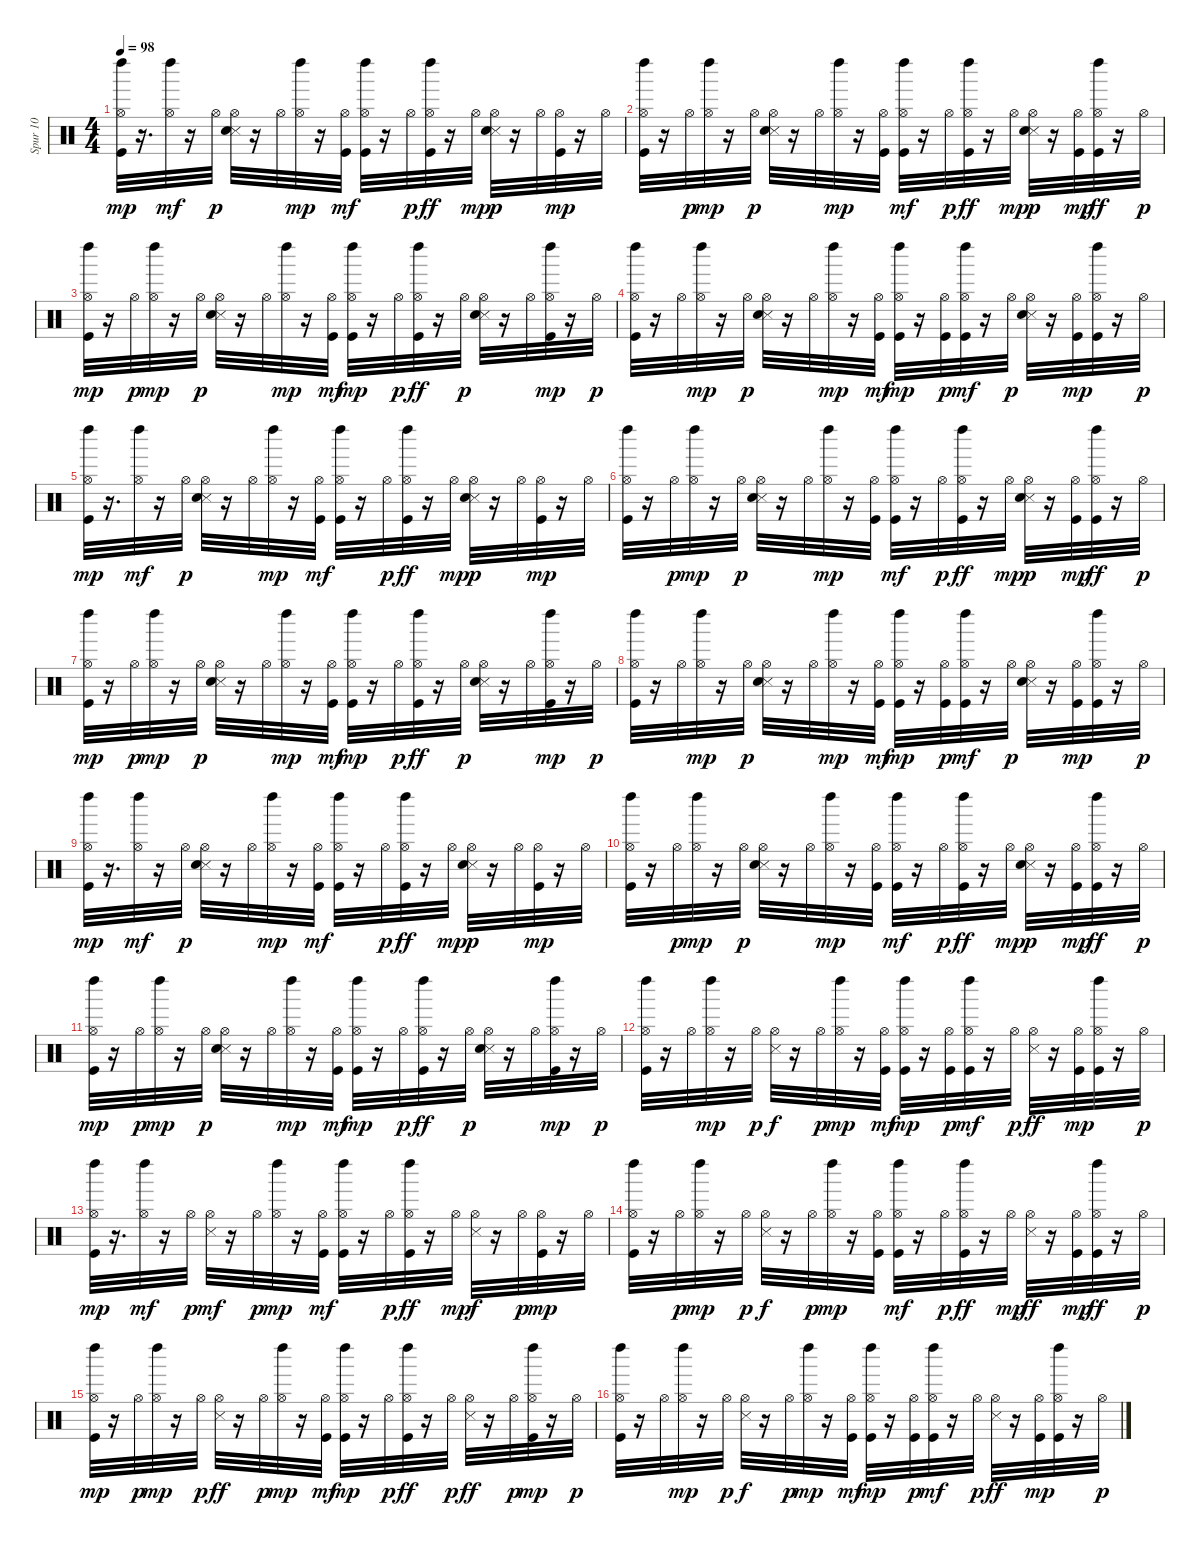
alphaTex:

\track ("Spur 10" "Spur 10") {instrument percussion}
\staff {score}
\articulation defaults
\ts (4 4)
\tempo 98
\clef neutral
\ks c
("Hi-Hat (open)" "Kick (hit)" "Left Maraca (hit)").32{dy mp} r.16{d} ("Hi-Hat (open)" "Left Maraca (hit)").32{dy mf} r.16 "Hi-Hat (open)".32{dy p} ("Hi-Hat (open)" "Snare (side stick) 3" "Electric Snare (hit)").32 r.16 "Hi-Hat (open)".32 ("Hi-Hat (open)" "Left Maraca (hit)").32{dy mp} r.16 ("Hi-Hat (open)" "Kick (hit)").32{dy mf} ("Hi-Hat (open)" "Kick (hit)" "Left Maraca (hit)").32 r.16 "Hi-Hat (open)".32{dy p} ("Hi-Hat (open)" "Kick (hit)" "Left Maraca (hit)").32{dy ff} r.16 "Hi-Hat (open)".32{dy mp} ("Hi-Hat (open)" "Snare (side stick) 3" "Electric Snare (hit)").32{dy p} r.16 "Hi-Hat (open)".32 ("Hi-Hat (open)" "Kick (hit)").32{dy mp} r.16 "Hi-Hat (open)".32 |
("Hi-Hat (open)" "Kick (hit)" "Left Maraca (hit)").32 r.16 "Hi-Hat (open)".32{dy p} ("Hi-Hat (open)" "Left Maraca (hit)").32{dy mp} r.16 "Hi-Hat (open)".32{dy p} ("Hi-Hat (open)" "Snare (side stick) 3" "Electric Snare (hit)").32 r.16 "Hi-Hat (open)".32 ("Hi-Hat (open)" "Left Maraca (hit)").32{dy mp} r.16 ("Hi-Hat (open)" "Kick (hit)").32 ("Hi-Hat (open)" "Kick (hit)" "Left Maraca (hit)").32{dy mf} r.16 "Hi-Hat (open)".32{dy p} ("Hi-Hat (open)" "Kick (hit)" "Left Maraca (hit)").32{dy ff} r.16 "Hi-Hat (open)".32{dy mp} ("Hi-Hat (open)" "Snare (side stick) 3" "Electric Snare (hit)").32{dy p} r.16 ("Hi-Hat (open)" "Kick (hit)").32{dy mp} ("Hi-Hat (open)" "Kick (hit)" "Left Maraca (hit)").32{dy ff} r.16 "Hi-Hat (open)".32{dy p} |
("Hi-Hat (open)" "Kick (hit)" "Left Maraca (hit)").32{dy mp} r.16 "Hi-Hat (open)".32{dy p} ("Hi-Hat (open)" "Left Maraca (hit)").32{dy mp} r.16 "Hi-Hat (open)".32{dy p} ("Hi-Hat (open)" "Snare (side stick) 3" "Electric Snare (hit)").32 r.16 "Hi-Hat (open)".32 ("Hi-Hat (open)" "Left Maraca (hit)").32{dy mp} r.16 ("Hi-Hat (open)" "Kick (hit)").32{dy mf} ("Hi-Hat (open)" "Kick (hit)" "Left Maraca (hit)").32{dy mp} r.16 "Hi-Hat (open)".32{dy p} ("Hi-Hat (open)" "Kick (hit)" "Left Maraca (hit)").32{dy ff} r.16 "Hi-Hat (open)".32{dy p} ("Hi-Hat (open)" "Snare (side stick) 3" "Electric Snare (hit)").32 r.16 "Hi-Hat (open)".32 ("Hi-Hat (open)" "Kick (hit)" "Left Maraca (hit)").32{dy mp} r.16 "Hi-Hat (open)".32{dy p} |
("Hi-Hat (open)" "Kick (hit)" "Left Maraca (hit)").32 r.16 "Hi-Hat (open)".32 ("Hi-Hat (open)" "Left Maraca (hit)").32{dy mp} r.16 "Hi-Hat (open)".32{dy p} ("Hi-Hat (open)" "Snare (side stick) 3" "Electric Snare (hit)").32 r.16 "Hi-Hat (open)".32 ("Hi-Hat (open)" "Left Maraca (hit)").32{dy mp} r.16 ("Hi-Hat (open)" "Kick (hit)").32{dy mf} ("Hi-Hat (open)" "Kick (hit)" "Left Maraca (hit)").32{dy mp} r.16 ("Hi-Hat (open)" "Kick (hit)").32{dy p} ("Hi-Hat (open)" "Kick (hit)" "Left Maraca (hit)").32{dy mf} r.16 "Hi-Hat (open)".32{dy p} ("Hi-Hat (open)" "Snare (side stick) 3" "Electric Snare (hit)").32 r.16 ("Hi-Hat (open)" "Kick (hit)").32{dy mp} ("Hi-Hat (open)" "Kick (hit)" "Left Maraca (hit)").32 r.16 "Hi-Hat (open)".32{dy p} |
("Hi-Hat (open)" "Kick (hit)" "Left Maraca (hit)").32{dy mp} r.16{d} ("Hi-Hat (open)" "Left Maraca (hit)").32{dy mf} r.16 "Hi-Hat (open)".32{dy p} ("Hi-Hat (open)" "Snare (side stick) 3" "Electric Snare (hit)").32 r.16 "Hi-Hat (open)".32 ("Hi-Hat (open)" "Left Maraca (hit)").32{dy mp} r.16 ("Hi-Hat (open)" "Kick (hit)").32{dy mf} ("Hi-Hat (open)" "Kick (hit)" "Left Maraca (hit)").32 r.16 "Hi-Hat (open)".32{dy p} ("Hi-Hat (open)" "Kick (hit)" "Left Maraca (hit)").32{dy ff} r.16 "Hi-Hat (open)".32{dy mp} ("Hi-Hat (open)" "Snare (side stick) 3" "Electric Snare (hit)").32{dy p} r.16 "Hi-Hat (open)".32 ("Hi-Hat (open)" "Kick (hit)").32{dy mp} r.16 "Hi-Hat (open)".32 |
("Hi-Hat (open)" "Kick (hit)" "Left Maraca (hit)").32 r.16 "Hi-Hat (open)".32{dy p} ("Hi-Hat (open)" "Left Maraca (hit)").32{dy mp} r.16 "Hi-Hat (open)".32{dy p} ("Hi-Hat (open)" "Snare (side stick) 3" "Electric Snare (hit)").32 r.16 "Hi-Hat (open)".32 ("Hi-Hat (open)" "Left Maraca (hit)").32{dy mp} r.16 ("Hi-Hat (open)" "Kick (hit)").32 ("Hi-Hat (open)" "Kick (hit)" "Left Maraca (hit)").32{dy mf} r.16 "Hi-Hat (open)".32{dy p} ("Hi-Hat (open)" "Kick (hit)" "Left Maraca (hit)").32{dy ff} r.16 "Hi-Hat (open)".32{dy mp} ("Hi-Hat (open)" "Snare (side stick) 3" "Electric Snare (hit)").32{dy p} r.16 ("Hi-Hat (open)" "Kick (hit)").32{dy mp} ("Hi-Hat (open)" "Kick (hit)" "Left Maraca (hit)").32{dy ff} r.16 "Hi-Hat (open)".32{dy p} |
("Hi-Hat (open)" "Kick (hit)" "Left Maraca (hit)").32{dy mp} r.16 "Hi-Hat (open)".32{dy p} ("Hi-Hat (open)" "Left Maraca (hit)").32{dy mp} r.16 "Hi-Hat (open)".32{dy p} ("Hi-Hat (open)" "Snare (side stick) 3" "Electric Snare (hit)").32 r.16 "Hi-Hat (open)".32 ("Hi-Hat (open)" "Left Maraca (hit)").32{dy mp} r.16 ("Hi-Hat (open)" "Kick (hit)").32{dy mf} ("Hi-Hat (open)" "Kick (hit)" "Left Maraca (hit)").32{dy mp} r.16 "Hi-Hat (open)".32{dy p} ("Hi-Hat (open)" "Kick (hit)" "Left Maraca (hit)").32{dy ff} r.16 "Hi-Hat (open)".32{dy p} ("Hi-Hat (open)" "Snare (side stick) 3" "Electric Snare (hit)").32 r.16 "Hi-Hat (open)".32 ("Hi-Hat (open)" "Kick (hit)" "Left Maraca (hit)").32{dy mp} r.16 "Hi-Hat (open)".32{dy p} |
("Hi-Hat (open)" "Kick (hit)" "Left Maraca (hit)").32 r.16 "Hi-Hat (open)".32 ("Hi-Hat (open)" "Left Maraca (hit)").32{dy mp} r.16 "Hi-Hat (open)".32{dy p} ("Hi-Hat (open)" "Snare (side stick) 3" "Electric Snare (hit)").32 r.16 "Hi-Hat (open)".32 ("Hi-Hat (open)" "Left Maraca (hit)").32{dy mp} r.16 ("Hi-Hat (open)" "Kick (hit)").32{dy mf} ("Hi-Hat (open)" "Kick (hit)" "Left Maraca (hit)").32{dy mp} r.16 ("Hi-Hat (open)" "Kick (hit)").32{dy p} ("Hi-Hat (open)" "Kick (hit)" "Left Maraca (hit)").32{dy mf} r.16 "Hi-Hat (open)".32{dy p} ("Hi-Hat (open)" "Snare (side stick) 3" "Electric Snare (hit)").32 r.16 ("Hi-Hat (open)" "Kick (hit)").32{dy mp} ("Hi-Hat (open)" "Kick (hit)" "Left Maraca (hit)").32 r.16 "Hi-Hat (open)".32{dy p} |
("Hi-Hat (open)" "Kick (hit)" "Left Maraca (hit)").32{dy mp} r.16{d} ("Hi-Hat (open)" "Left Maraca (hit)").32{dy mf} r.16 "Hi-Hat (open)".32{dy p} ("Hi-Hat (open)" "Snare (side stick) 3" "Electric Snare (hit)").32 r.16 "Hi-Hat (open)".32 ("Hi-Hat (open)" "Left Maraca (hit)").32{dy mp} r.16 ("Hi-Hat (open)" "Kick (hit)").32{dy mf} ("Hi-Hat (open)" "Kick (hit)" "Left Maraca (hit)").32 r.16 "Hi-Hat (open)".32{dy p} ("Hi-Hat (open)" "Kick (hit)" "Left Maraca (hit)").32{dy ff} r.16 "Hi-Hat (open)".32{dy mp} ("Hi-Hat (open)" "Snare (side stick) 3" "Electric Snare (hit)").32{dy p} r.16 "Hi-Hat (open)".32 ("Hi-Hat (open)" "Kick (hit)").32{dy mp} r.16 "Hi-Hat (open)".32 |
("Hi-Hat (open)" "Kick (hit)" "Left Maraca (hit)").32 r.16 "Hi-Hat (open)".32{dy p} ("Hi-Hat (open)" "Left Maraca (hit)").32{dy mp} r.16 "Hi-Hat (open)".32{dy p} ("Hi-Hat (open)" "Snare (side stick) 3" "Electric Snare (hit)").32 r.16 "Hi-Hat (open)".32 ("Hi-Hat (open)" "Left Maraca (hit)").32{dy mp} r.16 ("Hi-Hat (open)" "Kick (hit)").32 ("Hi-Hat (open)" "Kick (hit)" "Left Maraca (hit)").32{dy mf} r.16 "Hi-Hat (open)".32{dy p} ("Hi-Hat (open)" "Kick (hit)" "Left Maraca (hit)").32{dy ff} r.16 "Hi-Hat (open)".32{dy mp} ("Hi-Hat (open)" "Snare (side stick) 3" "Electric Snare (hit)").32{dy p} r.16 ("Hi-Hat (open)" "Kick (hit)").32{dy mp} ("Hi-Hat (open)" "Kick (hit)" "Left Maraca (hit)").32{dy ff} r.16 "Hi-Hat (open)".32{dy p} |
("Hi-Hat (open)" "Kick (hit)" "Left Maraca (hit)").32{dy mp} r.16 "Hi-Hat (open)".32{dy p} ("Hi-Hat (open)" "Left Maraca (hit)").32{dy mp} r.16 "Hi-Hat (open)".32{dy p} ("Hi-Hat (open)" "Snare (side stick) 3" "Electric Snare (hit)").32 r.16 "Hi-Hat (open)".32 ("Hi-Hat (open)" "Left Maraca (hit)").32{dy mp} r.16 ("Hi-Hat (open)" "Kick (hit)").32{dy mf} ("Hi-Hat (open)" "Kick (hit)" "Left Maraca (hit)").32{dy mp} r.16 "Hi-Hat (open)".32{dy p} ("Hi-Hat (open)" "Kick (hit)" "Left Maraca (hit)").32{dy ff} r.16 "Hi-Hat (open)".32{dy p} ("Hi-Hat (open)" "Snare (side stick) 3" "Electric Snare (hit)").32 r.16 "Hi-Hat (open)".32 ("Hi-Hat (open)" "Kick (hit)" "Left Maraca (hit)").32{dy mp} r.16 "Hi-Hat (open)".32{dy p} |
("Hi-Hat (open)" "Kick (hit)" "Left Maraca (hit)").32 r.16 "Hi-Hat (open)".32 ("Hi-Hat (open)" "Left Maraca (hit)").32{dy mp} r.16 "Hi-Hat (open)".32{dy p} ("Hi-Hat (open)" "Snare (side stick) 3").32{dy f} r.16 "Hi-Hat (open)".32{dy p} ("Hi-Hat (open)" "Left Maraca (hit)").32{dy mp} r.16 ("Hi-Hat (open)" "Kick (hit)").32{dy mf} ("Hi-Hat (open)" "Kick (hit)" "Left Maraca (hit)").32{dy mp} r.16 ("Hi-Hat (open)" "Kick (hit)").32{dy p} ("Hi-Hat (open)" "Kick (hit)" "Left Maraca (hit)").32{dy mf} r.16 "Hi-Hat (open)".32{dy p} ("Hi-Hat (open)" "Snare (side stick) 3").32{dy ff} r.16 ("Hi-Hat (open)" "Kick (hit)").32{dy mp} ("Hi-Hat (open)" "Kick (hit)" "Left Maraca (hit)").32 r.16 "Hi-Hat (open)".32{dy p} |
("Hi-Hat (open)" "Kick (hit)" "Left Maraca (hit)").32{dy mp} r.16{d} ("Hi-Hat (open)" "Left Maraca (hit)").32{dy mf} r.16 "Hi-Hat (open)".32{dy p} ("Hi-Hat (open)" "Snare (side stick) 3").32{dy mf} r.16 "Hi-Hat (open)".32{dy p} ("Hi-Hat (open)" "Left Maraca (hit)").32{dy mp} r.16 ("Hi-Hat (open)" "Kick (hit)").32{dy mf} ("Hi-Hat (open)" "Kick (hit)" "Left Maraca (hit)").32 r.16 "Hi-Hat (open)".32{dy p} ("Hi-Hat (open)" "Kick (hit)" "Left Maraca (hit)").32{dy ff} r.16 "Hi-Hat (open)".32{dy mp} ("Hi-Hat (open)" "Snare (side stick) 3").32{dy f} r.16 "Hi-Hat (open)".32{dy p} ("Hi-Hat (open)" "Kick (hit)").32{dy mp} r.16 "Hi-Hat (open)".32 |
("Hi-Hat (open)" "Kick (hit)" "Left Maraca (hit)").32 r.16 "Hi-Hat (open)".32{dy p} ("Hi-Hat (open)" "Left Maraca (hit)").32{dy mp} r.16 "Hi-Hat (open)".32{dy p} ("Hi-Hat (open)" "Snare (side stick) 3").32{dy f} r.16 "Hi-Hat (open)".32{dy p} ("Hi-Hat (open)" "Left Maraca (hit)").32{dy mp} r.16 ("Hi-Hat (open)" "Kick (hit)").32 ("Hi-Hat (open)" "Kick (hit)" "Left Maraca (hit)").32{dy mf} r.16 "Hi-Hat (open)".32{dy p} ("Hi-Hat (open)" "Kick (hit)" "Left Maraca (hit)").32{dy ff} r.16 "Hi-Hat (open)".32{dy mp} ("Hi-Hat (open)" "Snare (side stick) 3").32{dy ff} r.16 ("Hi-Hat (open)" "Kick (hit)").32{dy mp} ("Hi-Hat (open)" "Kick (hit)" "Left Maraca (hit)").32{dy ff} r.16 "Hi-Hat (open)".32{dy p} |
("Hi-Hat (open)" "Kick (hit)" "Left Maraca (hit)").32{dy mp} r.16 "Hi-Hat (open)".32{dy p} ("Hi-Hat (open)" "Left Maraca (hit)").32{dy mp} r.16 "Hi-Hat (open)".32{dy p} ("Hi-Hat (open)" "Snare (side stick) 3").32{dy ff} r.16 "Hi-Hat (open)".32{dy p} ("Hi-Hat (open)" "Left Maraca (hit)").32{dy mp} r.16 ("Hi-Hat (open)" "Kick (hit)").32{dy mf} ("Hi-Hat (open)" "Kick (hit)" "Left Maraca (hit)").32{dy mp} r.16 "Hi-Hat (open)".32{dy p} ("Hi-Hat (open)" "Kick (hit)" "Left Maraca (hit)").32{dy ff} r.16 "Hi-Hat (open)".32{dy p} ("Hi-Hat (open)" "Snare (side stick) 3").32{dy ff} r.16 "Hi-Hat (open)".32{dy p} ("Hi-Hat (open)" "Kick (hit)" "Left Maraca (hit)").32{dy mp} r.16 "Hi-Hat (open)".32{dy p} |
("Hi-Hat (open)" "Kick (hit)" "Left Maraca (hit)").32 r.16 "Hi-Hat (open)".32 ("Hi-Hat (open)" "Left Maraca (hit)").32{dy mp} r.16 "Hi-Hat (open)".32{dy p} ("Hi-Hat (open)" "Snare (side stick) 3").32{dy f} r.16 "Hi-Hat (open)".32{dy p} ("Hi-Hat (open)" "Left Maraca (hit)").32{dy mp} r.16 ("Hi-Hat (open)" "Kick (hit)").32{dy mf} ("Hi-Hat (open)" "Kick (hit)" "Left Maraca (hit)").32{dy mp} r.16 ("Hi-Hat (open)" "Kick (hit)").32{dy p} ("Hi-Hat (open)" "Kick (hit)" "Left Maraca (hit)").32{dy mf} r.16 "Hi-Hat (open)".32{dy p} ("Hi-Hat (open)" "Snare (side stick) 3").32{dy ff} r.16 ("Hi-Hat (open)" "Kick (hit)").32{dy mp} ("Hi-Hat (open)" "Kick (hit)" "Left Maraca (hit)").32 r.16 "Hi-Hat (open)".32{dy p}
